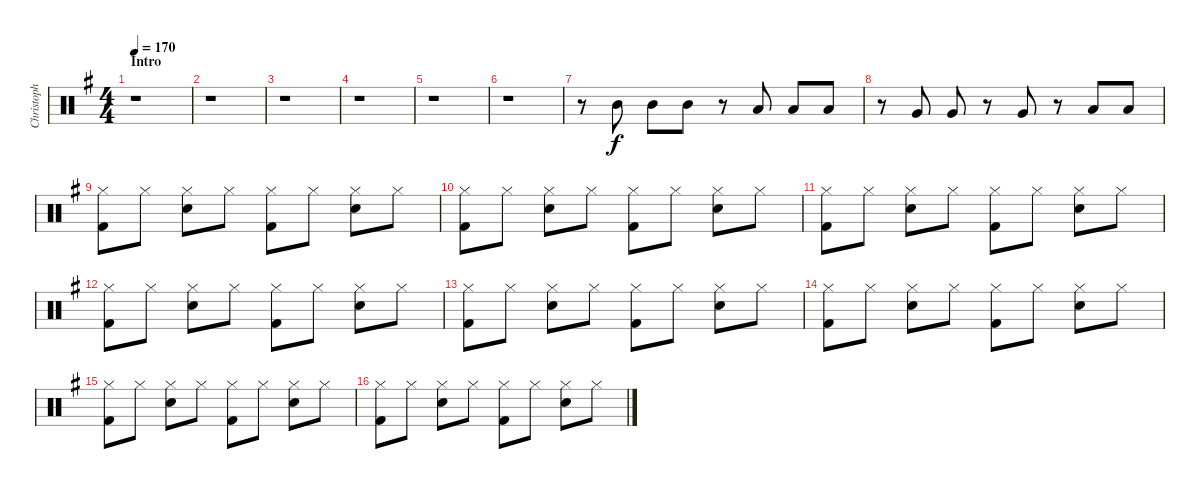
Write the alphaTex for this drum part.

\track ("Christoph Doom Schneider - Drums" "Christoph ") {instrument percussion}
\staff {score}
\articulation defaults
\ts (4 4)
\section ("" "Intro")
\tempo 170
\clef neutral
\ks g
r.1{dy f} |
r.1 |
r.1 |
r.1 |
r.1 |
r.1 |
r.8 "Mid Tom (hit)".8 "Mid Tom (hit)".8 "Mid Tom (hit)".8 r.8 "Low Tom (hit)".8 "Low Tom (hit)".8 "Low Tom (hit)".8 |
r.8 "Very Low Tom (hit)".8 "Very Low Tom (hit)".8 r.8 "Very Low Tom (hit)".8 r.8 "Low Floor Tom (hit)".8 "Low Floor Tom (hit)".8 |
("Hi-Hat (closed)" "Kick (hit) 2").8 "Hi-Hat (closed)".8 ("Hi-Hat (closed)" "Electric Snare (hit)").8 "Hi-Hat (closed)".8 ("Hi-Hat (closed)" "Kick (hit) 2").8 "Hi-Hat (closed)".8 ("Hi-Hat (closed)" "Electric Snare (hit)").8 "Hi-Hat (closed)".8 |
("Hi-Hat (closed)" "Kick (hit) 2").8 "Hi-Hat (closed)".8 ("Hi-Hat (closed)" "Electric Snare (hit)").8 "Hi-Hat (closed)".8 ("Hi-Hat (closed)" "Kick (hit) 2").8 "Hi-Hat (closed)".8 ("Hi-Hat (closed)" "Electric Snare (hit)").8 "Hi-Hat (closed)".8 |
("Hi-Hat (closed)" "Kick (hit) 2").8 "Hi-Hat (closed)".8 ("Hi-Hat (closed)" "Electric Snare (hit)").8 "Hi-Hat (closed)".8 ("Hi-Hat (closed)" "Kick (hit) 2").8 "Hi-Hat (closed)".8 ("Hi-Hat (closed)" "Electric Snare (hit)").8 "Hi-Hat (closed)".8 |
("Hi-Hat (closed)" "Kick (hit) 2").8 "Hi-Hat (closed)".8 ("Hi-Hat (closed)" "Electric Snare (hit)").8 "Hi-Hat (closed)".8 ("Hi-Hat (closed)" "Kick (hit) 2").8 "Hi-Hat (closed)".8 ("Hi-Hat (closed)" "Electric Snare (hit)").8 "Hi-Hat (closed)".8 |
("Hi-Hat (closed)" "Kick (hit) 2").8 "Hi-Hat (closed)".8 ("Hi-Hat (closed)" "Electric Snare (hit)").8 "Hi-Hat (closed)".8 ("Hi-Hat (closed)" "Kick (hit) 2").8 "Hi-Hat (closed)".8 ("Hi-Hat (closed)" "Electric Snare (hit)").8 "Hi-Hat (closed)".8 |
("Hi-Hat (closed)" "Kick (hit) 2").8 "Hi-Hat (closed)".8 ("Hi-Hat (closed)" "Electric Snare (hit)").8 "Hi-Hat (closed)".8 ("Hi-Hat (closed)" "Kick (hit) 2").8 "Hi-Hat (closed)".8 ("Hi-Hat (closed)" "Electric Snare (hit)").8 "Hi-Hat (closed)".8 |
("Hi-Hat (closed)" "Kick (hit) 2").8 "Hi-Hat (closed)".8 ("Hi-Hat (closed)" "Electric Snare (hit)").8 "Hi-Hat (closed)".8 ("Hi-Hat (closed)" "Kick (hit) 2").8 "Hi-Hat (closed)".8 ("Hi-Hat (closed)" "Electric Snare (hit)").8 "Hi-Hat (closed)".8 |
("Hi-Hat (closed)" "Kick (hit) 2").8 "Hi-Hat (closed)".8 ("Hi-Hat (closed)" "Electric Snare (hit)").8 "Hi-Hat (closed)".8 ("Hi-Hat (closed)" "Kick (hit) 2").8 "Hi-Hat (closed)".8 ("Hi-Hat (closed)" "Electric Snare (hit)").8 "Hi-Hat (closed)".8
